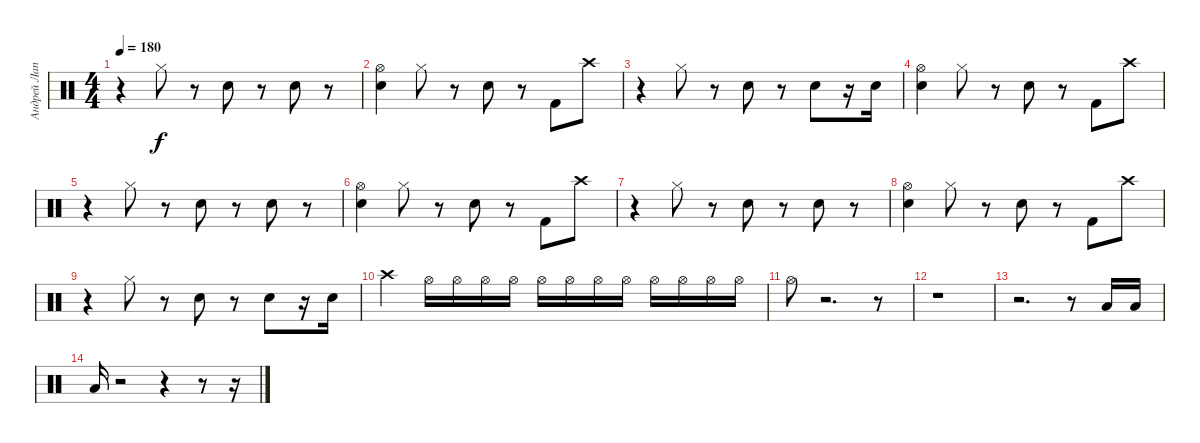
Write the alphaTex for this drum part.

\track ("Андрей Лаптев" "Андрей Лап") {instrument percussion}
\staff {score}
\articulation defaults
\ts (4 4)
\tempo 180
\clef neutral
\ks c
r.4{dy f} "Hi-Hat (closed)".8 r.8 "Snare (hit) 2".8 r.8 "Snare (hit) 2".8 r.8 |
("Snare (hit) 2" "Hi-Hat (open)").4 "Hi-Hat (closed)".8 r.8 "Snare (hit) 2".8 r.8 "Kick (hit) 2".8 "Crash high (hit)".8 |
r.4 "Hi-Hat (closed)".8 r.8 "Snare (hit) 2".8 r.8 "Snare (hit) 2".8 r.16 "Snare (hit) 2".16 |
("Snare (hit) 2" "Hi-Hat (open)").4 "Hi-Hat (closed)".8 r.8 "Snare (hit) 2".8 r.8 "Kick (hit) 2".8 "Crash high (hit)".8 |
r.4 "Hi-Hat (closed)".8 r.8 "Snare (hit) 2".8 r.8 "Snare (hit) 2".8 r.8 |
("Snare (hit) 2" "Hi-Hat (open)").4 "Hi-Hat (closed)".8 r.8 "Snare (hit) 2".8 r.8 "Kick (hit) 2".8 "Crash high (hit)".8 |
r.4 "Hi-Hat (closed)".8 r.8 "Snare (hit) 2".8 r.8 "Snare (hit) 2".8 r.8 |
("Snare (hit) 2" "Hi-Hat (open)").4 "Hi-Hat (closed)".8 r.8 "Snare (hit) 2".8 r.8 "Kick (hit) 2".8 "Crash high (hit)".8 |
r.4 "Hi-Hat (closed)".8 r.8 "Snare (hit) 2".8 r.8 "Snare (hit) 2".8 r.16 "Snare (hit) 2".16 |
"Crash high (hit)".4 "Hi-Hat (open)".16 "Hi-Hat (open)".16 "Hi-Hat (open)".16 "Hi-Hat (open)".16 "Hi-Hat (open)".16 "Hi-Hat (open)".16 "Hi-Hat (open)".16 "Hi-Hat (open)".16 "Hi-Hat (open)".16 "Hi-Hat (open)".16 "Hi-Hat (open)".16 "Hi-Hat (open)".16 |
"Hi-Hat (open)".8 r.2{d} r.8 |
r.1 |
r.2{d} r.8 "Low Tom (hit)".16 "Low Tom (hit)".16 |
"Low Tom (hit)".16 r.2 r.4 r.8 r.16
